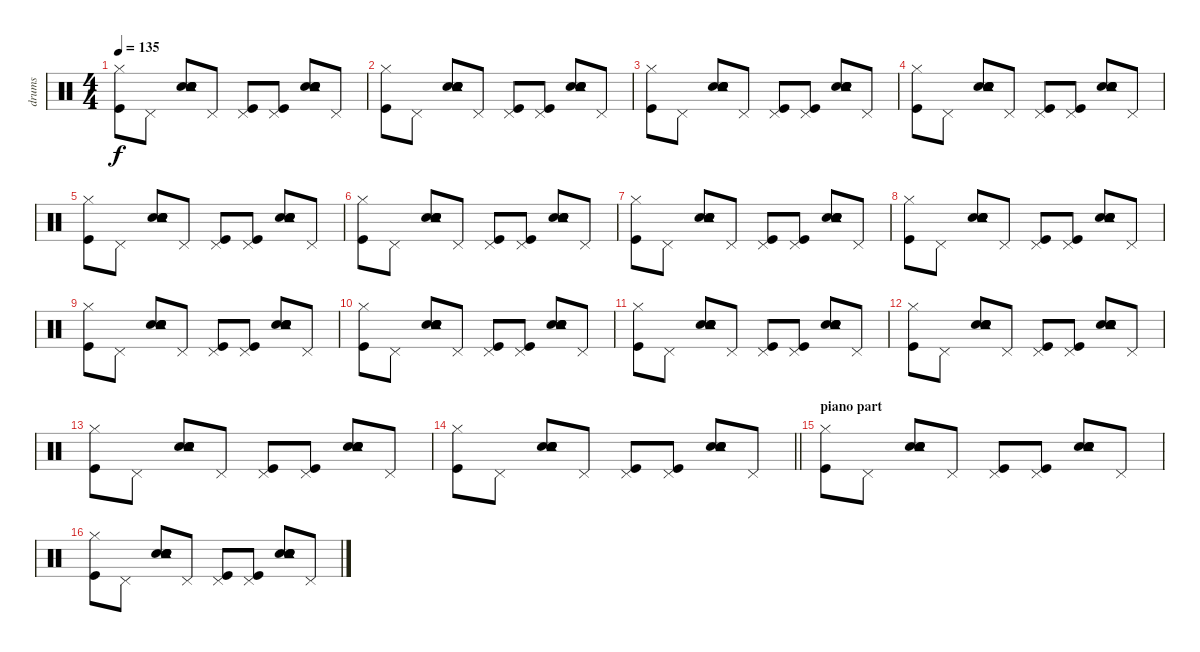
\track ("drums" "drums") {instrument percussion}
\staff {score}
\articulation defaults
\ts (4 4)
\tempo 135
\clef neutral
\ks c
("Kick (hit)" "Hi-Hat (closed)").8{dy f} "Pedal Hi-Hat (hit)".8 ("Snare (hit) 2" "Snare (hit) 2" "Electric Snare (hit)" "Electric Snare (hit)" "Tambourine (hit)").8 "Pedal Hi-Hat (hit)".8 ("Kick (hit)" "Pedal Hi-Hat (hit)").8 ("Kick (hit)" "Pedal Hi-Hat (hit)").8 ("Snare (hit) 2" "Snare (hit) 2" "Electric Snare (hit)" "Electric Snare (hit)" "Tambourine (hit)").8 "Pedal Hi-Hat (hit)".8 |
("Kick (hit)" "Hi-Hat (closed)").8 "Pedal Hi-Hat (hit)".8 ("Snare (hit) 2" "Snare (hit) 2" "Electric Snare (hit)" "Electric Snare (hit)" "Tambourine (hit)").8 "Pedal Hi-Hat (hit)".8 ("Kick (hit)" "Pedal Hi-Hat (hit)").8 ("Kick (hit)" "Pedal Hi-Hat (hit)").8 ("Snare (hit) 2" "Snare (hit) 2" "Electric Snare (hit)" "Electric Snare (hit)" "Tambourine (hit)").8 "Pedal Hi-Hat (hit)".8 |
("Kick (hit)" "Hi-Hat (closed)").8 "Pedal Hi-Hat (hit)".8 ("Snare (hit) 2" "Snare (hit) 2" "Electric Snare (hit)" "Electric Snare (hit)" "Tambourine (hit)").8 "Pedal Hi-Hat (hit)".8 ("Kick (hit)" "Pedal Hi-Hat (hit)").8 ("Kick (hit)" "Pedal Hi-Hat (hit)").8 ("Snare (hit) 2" "Snare (hit) 2" "Electric Snare (hit)" "Electric Snare (hit)" "Tambourine (hit)").8 "Pedal Hi-Hat (hit)".8 |
("Kick (hit)" "Hi-Hat (closed)").8 "Pedal Hi-Hat (hit)".8 ("Snare (hit) 2" "Snare (hit) 2" "Electric Snare (hit)" "Electric Snare (hit)" "Tambourine (hit)").8 "Pedal Hi-Hat (hit)".8 ("Kick (hit)" "Pedal Hi-Hat (hit)").8 ("Kick (hit)" "Pedal Hi-Hat (hit)").8 ("Snare (hit) 2" "Snare (hit) 2" "Electric Snare (hit)" "Electric Snare (hit)" "Tambourine (hit)").8 "Pedal Hi-Hat (hit)".8 |
("Kick (hit)" "Hi-Hat (closed)").8 "Pedal Hi-Hat (hit)".8 ("Snare (hit) 2" "Snare (hit) 2" "Electric Snare (hit)" "Electric Snare (hit)" "Tambourine (hit)").8 "Pedal Hi-Hat (hit)".8 ("Kick (hit)" "Pedal Hi-Hat (hit)").8 ("Kick (hit)" "Pedal Hi-Hat (hit)").8 ("Snare (hit) 2" "Snare (hit) 2" "Electric Snare (hit)" "Electric Snare (hit)" "Tambourine (hit)").8 "Pedal Hi-Hat (hit)".8 |
("Kick (hit)" "Hi-Hat (closed)").8 "Pedal Hi-Hat (hit)".8 ("Snare (hit) 2" "Snare (hit) 2" "Electric Snare (hit)" "Electric Snare (hit)" "Tambourine (hit)").8 "Pedal Hi-Hat (hit)".8 ("Kick (hit)" "Pedal Hi-Hat (hit)").8 ("Kick (hit)" "Pedal Hi-Hat (hit)").8 ("Snare (hit) 2" "Snare (hit) 2" "Electric Snare (hit)" "Electric Snare (hit)" "Tambourine (hit)").8 "Pedal Hi-Hat (hit)".8 |
("Kick (hit)" "Hi-Hat (closed)").8 "Pedal Hi-Hat (hit)".8 ("Snare (hit) 2" "Snare (hit) 2" "Electric Snare (hit)" "Electric Snare (hit)" "Tambourine (hit)").8 "Pedal Hi-Hat (hit)".8 ("Kick (hit)" "Pedal Hi-Hat (hit)").8 ("Kick (hit)" "Pedal Hi-Hat (hit)").8 ("Snare (hit) 2" "Snare (hit) 2" "Electric Snare (hit)" "Electric Snare (hit)" "Tambourine (hit)").8 "Pedal Hi-Hat (hit)".8 |
("Kick (hit)" "Hi-Hat (closed)").8 "Pedal Hi-Hat (hit)".8 ("Snare (hit) 2" "Snare (hit) 2" "Electric Snare (hit)" "Electric Snare (hit)" "Tambourine (hit)").8 "Pedal Hi-Hat (hit)".8 ("Kick (hit)" "Pedal Hi-Hat (hit)").8 ("Kick (hit)" "Pedal Hi-Hat (hit)").8 ("Snare (hit) 2" "Snare (hit) 2" "Electric Snare (hit)" "Electric Snare (hit)" "Tambourine (hit)").8 "Pedal Hi-Hat (hit)".8 |
("Kick (hit)" "Hi-Hat (closed)").8 "Pedal Hi-Hat (hit)".8 ("Snare (hit) 2" "Snare (hit) 2" "Electric Snare (hit)" "Electric Snare (hit)" "Tambourine (hit)").8 "Pedal Hi-Hat (hit)".8 ("Kick (hit)" "Pedal Hi-Hat (hit)").8 ("Kick (hit)" "Pedal Hi-Hat (hit)").8 ("Snare (hit) 2" "Snare (hit) 2" "Electric Snare (hit)" "Electric Snare (hit)" "Tambourine (hit)").8 "Pedal Hi-Hat (hit)".8 |
("Kick (hit)" "Hi-Hat (closed)").8 "Pedal Hi-Hat (hit)".8 ("Snare (hit) 2" "Snare (hit) 2" "Electric Snare (hit)" "Electric Snare (hit)" "Tambourine (hit)").8 "Pedal Hi-Hat (hit)".8 ("Kick (hit)" "Pedal Hi-Hat (hit)").8 ("Kick (hit)" "Pedal Hi-Hat (hit)").8 ("Snare (hit) 2" "Snare (hit) 2" "Electric Snare (hit)" "Electric Snare (hit)" "Tambourine (hit)").8 "Pedal Hi-Hat (hit)".8 |
("Kick (hit)" "Hi-Hat (closed)").8 "Pedal Hi-Hat (hit)".8 ("Snare (hit) 2" "Snare (hit) 2" "Electric Snare (hit)" "Electric Snare (hit)" "Tambourine (hit)").8 "Pedal Hi-Hat (hit)".8 ("Kick (hit)" "Pedal Hi-Hat (hit)").8 ("Kick (hit)" "Pedal Hi-Hat (hit)").8 ("Snare (hit) 2" "Snare (hit) 2" "Electric Snare (hit)" "Electric Snare (hit)" "Tambourine (hit)").8 "Pedal Hi-Hat (hit)".8 |
("Kick (hit)" "Hi-Hat (closed)").8 "Pedal Hi-Hat (hit)".8 ("Snare (hit) 2" "Snare (hit) 2" "Electric Snare (hit)" "Electric Snare (hit)" "Tambourine (hit)").8 "Pedal Hi-Hat (hit)".8 ("Kick (hit)" "Pedal Hi-Hat (hit)").8 ("Kick (hit)" "Pedal Hi-Hat (hit)").8 ("Snare (hit) 2" "Snare (hit) 2" "Electric Snare (hit)" "Electric Snare (hit)" "Tambourine (hit)").8 "Pedal Hi-Hat (hit)".8 |
("Kick (hit)" "Hi-Hat (closed)").8 "Pedal Hi-Hat (hit)".8 ("Snare (hit) 2" "Snare (hit) 2" "Electric Snare (hit)" "Electric Snare (hit)" "Tambourine (hit)").8 "Pedal Hi-Hat (hit)".8 ("Kick (hit)" "Pedal Hi-Hat (hit)").8 ("Kick (hit)" "Pedal Hi-Hat (hit)").8 ("Snare (hit) 2" "Snare (hit) 2" "Electric Snare (hit)" "Electric Snare (hit)" "Tambourine (hit)").8 "Pedal Hi-Hat (hit)".8 |
\barLineRight lightlight
("Kick (hit)" "Hi-Hat (closed)").8 "Pedal Hi-Hat (hit)".8 ("Snare (hit) 2" "Snare (hit) 2" "Electric Snare (hit)" "Electric Snare (hit)" "Tambourine (hit)").8 "Pedal Hi-Hat (hit)".8 ("Kick (hit)" "Pedal Hi-Hat (hit)").8 ("Kick (hit)" "Pedal Hi-Hat (hit)").8 ("Snare (hit) 2" "Snare (hit) 2" "Electric Snare (hit)" "Electric Snare (hit)" "Tambourine (hit)").8 "Pedal Hi-Hat (hit)".8 |
\section ("" "piano part ")
("Kick (hit)" "Hi-Hat (closed)").8 "Pedal Hi-Hat (hit)".8 ("Snare (hit) 2" "Snare (hit) 2" "Electric Snare (hit)" "Electric Snare (hit)" "Tambourine (hit)").8 "Pedal Hi-Hat (hit)".8 ("Kick (hit)" "Pedal Hi-Hat (hit)").8 ("Kick (hit)" "Pedal Hi-Hat (hit)").8 ("Snare (hit) 2" "Snare (hit) 2" "Electric Snare (hit)" "Electric Snare (hit)" "Tambourine (hit)").8 "Pedal Hi-Hat (hit)".8 |
("Kick (hit)" "Hi-Hat (closed)").8 "Pedal Hi-Hat (hit)".8 ("Snare (hit) 2" "Snare (hit) 2" "Electric Snare (hit)" "Electric Snare (hit)" "Tambourine (hit)").8 "Pedal Hi-Hat (hit)".8 ("Kick (hit)" "Pedal Hi-Hat (hit)").8 ("Kick (hit)" "Pedal Hi-Hat (hit)").8 ("Snare (hit) 2" "Snare (hit) 2" "Electric Snare (hit)" "Electric Snare (hit)" "Tambourine (hit)").8 "Pedal Hi-Hat (hit)".8
